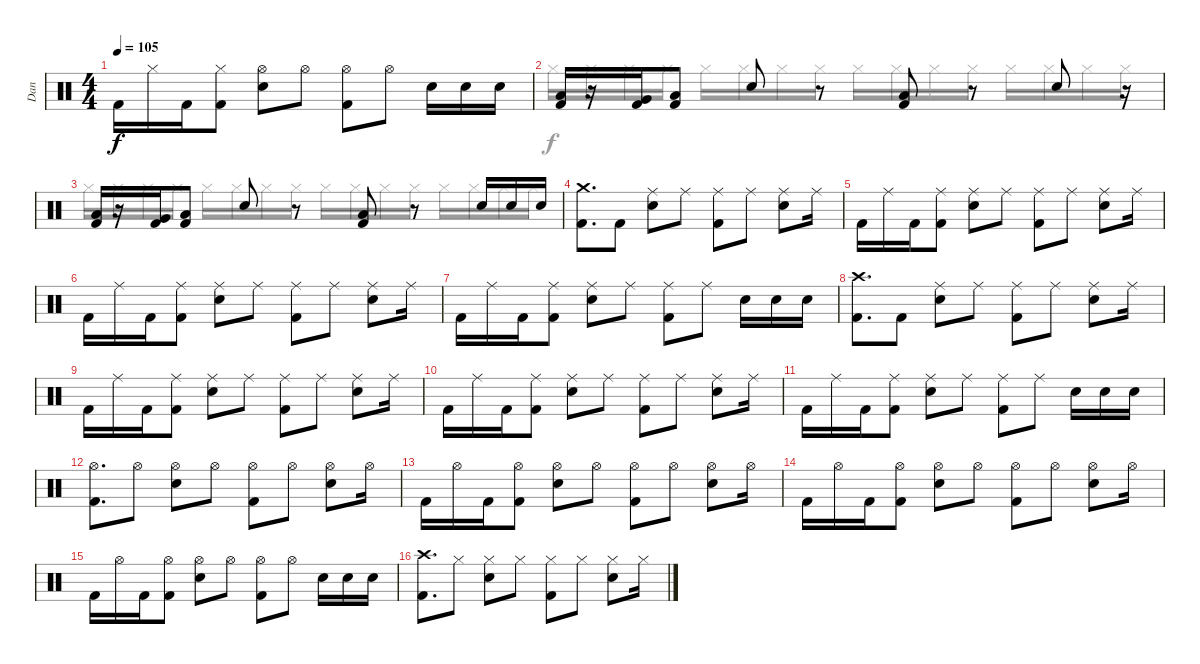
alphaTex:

\track ("Dan" "Dan") {instrument percussion}
\staff {score}
\articulation defaults
\voice
\ts (4 4)
\tempo 105
\clef neutral
\ks c "Kick (hit) 2".16{dy f} "Hi-Hat (closed)".16 "Kick (hit) 2".16
("Hi-Hat (closed)" "Kick (hit) 2").8 ("Hi-Hat (open)" "Snare (hit) 2").8 "Hi-Hat (open)".8 ("Hi-Hat (open)" "Kick (hit) 2").8 "Hi-Hat (open)".8 "Snare (hit) 2".16 "Snare (hit) 2".16 "Snare (hit) 2".16 |
("Low Tom (hit)" "Kick (hit) 2").16 r.16 ("Very Low Tom (hit)" "Kick (hit) 2").16 ("Low Floor Tom (hit)" "Kick (hit) 2").8 "Snare (hit) 2".8 r.8 ("Low Floor Tom (hit)" "Kick (hit) 2").8 r.8 "Snare (hit) 2".8 r.16 |
("Low Tom (hit)" "Kick (hit) 2").16 r.16 ("Very Low Tom (hit)" "Kick (hit) 2").16 ("Low Floor Tom (hit)" "Kick (hit) 2").8 "Snare (hit) 2".8 r.8 ("Low Floor Tom (hit)" "Kick (hit) 2").8 r.8 "Snare (hit) 2".16 "Snare (hit) 2".16 "Snare (hit) 2".16 |
("Crash medium (hit)" "Kick (hit) 2").8{d} "Kick (hit) 2".8 ("Ride (middle)" "Snare (hit) 2").8 "Ride (middle)".8 ("Ride (middle)" "Kick (hit) 2").8 "Ride (middle)".8 ("Ride (middle)" "Snare (hit) 2").8 "Ride (middle)".16 |
"Kick (hit) 2".16 "Ride (middle)".16 "Kick (hit) 2".16 ("Ride (middle)" "Kick (hit) 2").8 ("Ride (middle)" "Snare (hit) 2").8 "Ride (middle)".8 ("Ride (middle)" "Kick (hit) 2").8 "Ride (middle)".8 ("Ride (middle)" "Snare (hit) 2").8 "Ride (middle)".16 |
"Kick (hit) 2".16 "Ride (middle)".16 "Kick (hit) 2".16 ("Ride (middle)" "Kick (hit) 2").8 ("Ride (middle)" "Snare (hit) 2").8 "Ride (middle)".8 ("Ride (middle)" "Kick (hit) 2").8 "Ride (middle)".8 ("Ride (middle)" "Snare (hit) 2").8 "Ride (middle)".16 |
"Kick (hit) 2".16 "Ride (middle)".16 "Kick (hit) 2".16 ("Ride (middle)" "Kick (hit) 2").8 ("Ride (middle)" "Snare (hit) 2").8 "Ride (middle)".8 ("Ride (middle)" "Kick (hit) 2").8 "Ride (middle)".8 "Snare (hit) 2".16 "Snare (hit) 2".16 "Snare (hit) 2".16 |
("Crash high (hit)" "Kick (hit) 2").8{d} "Kick (hit) 2".8 ("Ride (middle)" "Snare (hit) 2").8 "Ride (middle)".8 ("Ride (middle)" "Kick (hit) 2").8 "Ride (middle)".8 ("Ride (middle)" "Snare (hit) 2").8 "Ride (middle)".16 |
"Kick (hit) 2".16 "Ride (middle)".16 "Kick (hit) 2".16 ("Ride (middle)" "Kick (hit) 2").8 ("Ride (middle)" "Snare (hit) 2").8 "Ride (middle)".8 ("Ride (middle)" "Kick (hit) 2").8 "Ride (middle)".8 ("Ride (middle)" "Snare (hit) 2").8 "Ride (middle)".16 |
"Kick (hit) 2".16 "Ride (middle)".16 "Kick (hit) 2".16 ("Ride (middle)" "Kick (hit) 2").8 ("Ride (middle)" "Snare (hit) 2").8 "Ride (middle)".8 ("Ride (middle)" "Kick (hit) 2").8 "Ride (middle)".8 ("Ride (middle)" "Snare (hit) 2").8 "Ride (middle)".16 |
"Kick (hit) 2".16 "Ride (middle)".16 "Kick (hit) 2".16 ("Ride (middle)" "Kick (hit) 2").8 ("Ride (middle)" "Snare (hit) 2").8 "Ride (middle)".8 ("Ride (middle)" "Kick (hit) 2").8 "Ride (middle)".8 "Snare (hit) 2".16 "Snare (hit) 2".16 "Snare (hit) 2".16 |
("Hi-Hat (open)" "Kick (hit) 2").8{d} "Hi-Hat (open)".8 ("Hi-Hat (open)" "Snare (hit) 2").8 "Hi-Hat (open)".8 ("Hi-Hat (open)" "Kick (hit) 2").8 "Hi-Hat (open)".8 ("Hi-Hat (open)" "Snare (hit) 2").8 "Hi-Hat (open)".16 |
"Kick (hit) 2".16 "Hi-Hat (open)".16 "Kick (hit) 2".16 ("Hi-Hat (open)" "Kick (hit) 2").8 ("Hi-Hat (open)" "Snare (hit) 2").8 "Hi-Hat (open)".8 ("Hi-Hat (open)" "Kick (hit) 2").8 "Hi-Hat (open)".8 ("Hi-Hat (open)" "Snare (hit) 2").8 "Hi-Hat (open)".16 |
"Kick (hit) 2".16 "Hi-Hat (open)".16 "Kick (hit) 2".16 ("Hi-Hat (open)" "Kick (hit) 2").8 ("Hi-Hat (open)" "Snare (hit) 2").8 "Hi-Hat (open)".8 ("Hi-Hat (open)" "Kick (hit) 2").8 "Hi-Hat (open)".8 ("Hi-Hat (open)" "Snare (hit) 2").8 "Hi-Hat (open)".16 |
"Kick (hit) 2".16 "Hi-Hat (open)".16 "Kick (hit) 2".16 ("Hi-Hat (open)" "Kick (hit) 2").8 ("Hi-Hat (open)" "Snare (hit) 2").8 "Hi-Hat (open)".8 ("Hi-Hat (open)" "Kick (hit) 2").8 "Hi-Hat (open)".8 "Snare (hit) 2".16 "Snare (hit) 2".16 "Snare (hit) 2".16 |
("Crash high (hit)" "Kick (hit) 2").8{d} "Hi-Hat (closed)".8 ("Hi-Hat (closed)" "Snare (hit) 2").8 "Hi-Hat (closed)".8 ("Hi-Hat (closed)" "Kick (hit) 2").8 "Hi-Hat (closed)".8 ("Hi-Hat (closed)" "Snare (hit) 2").8 "Hi-Hat (closed)".16
\voice
\clef neutral
\ottava regular
\simile none
\ks c
|
"Hi-Hat (closed)".16 "Hi-Hat (closed)".16 "Hi-Hat (closed)".16 "Hi-Hat (closed)".16 "Hi-Hat (closed)".16 "Hi-Hat (closed)".16 "Hi-Hat (closed)".16 "Hi-Hat (closed)".16 "Hi-Hat (closed)".16 "Hi-Hat (closed)".16 "Hi-Hat (closed)".16 "Hi-Hat (closed)".16 "Hi-Hat (closed)".16 "Hi-Hat (closed)".16 "Hi-Hat (closed)".16 "Hi-Hat (closed)".16 |
"Hi-Hat (closed)".16 "Hi-Hat (closed)".16 "Hi-Hat (closed)".16 "Hi-Hat (closed)".16 "Hi-Hat (closed)".16 "Hi-Hat (closed)".16 "Hi-Hat (closed)".16 "Hi-Hat (closed)".16 "Hi-Hat (closed)".16 "Hi-Hat (closed)".16 "Hi-Hat (closed)".16 "Hi-Hat (closed)".16 "Hi-Hat (closed)".16 "Hi-Hat (closed)".16 "Hi-Hat (closed)".16 "Hi-Hat (closed)".16 |
|
|
|
|
|
|
|
|
|
|
|
|
